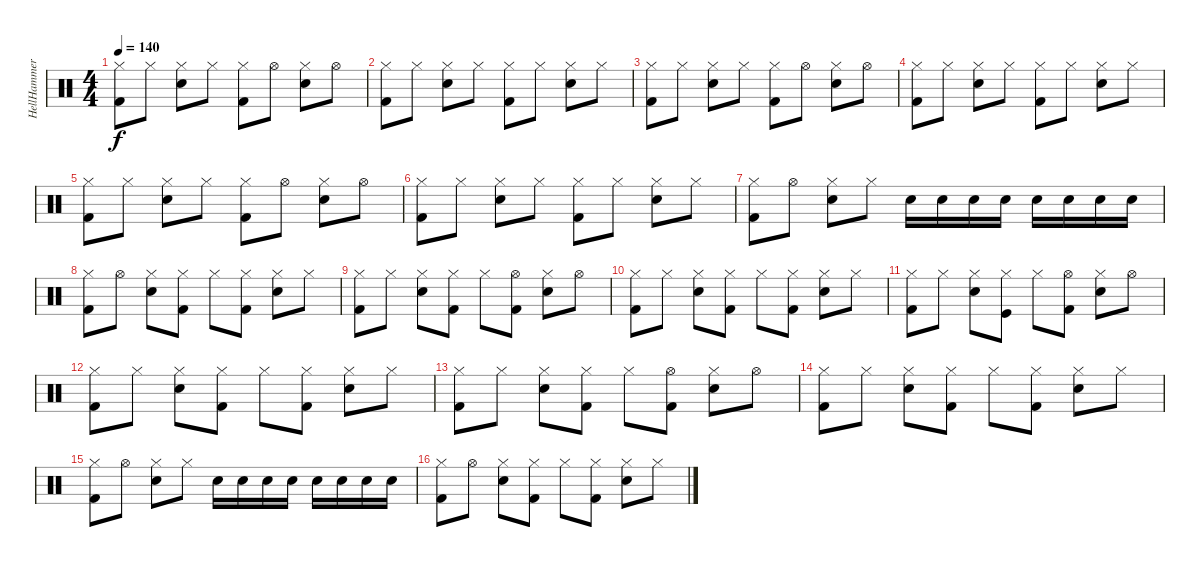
\track ("HellHammer - Drums" "HellHammer") {instrument percussion}
\staff {score}
\articulation defaults
\ts (4 4)
\tempo 140
\clef neutral
\ks c
("Hi-Hat (closed)" "Kick (hit) 2").8{dy f} "Hi-Hat (closed)".8 ("Hi-Hat (closed)" "Snare (hit) 2").8 "Hi-Hat (closed)".8 ("Hi-Hat (closed)" "Kick (hit) 2").8 "Hi-Hat (open)".8 ("Hi-Hat (closed)" "Snare (hit) 2").8 "Hi-Hat (open)".8 |
("Hi-Hat (closed)" "Kick (hit) 2").8 "Hi-Hat (closed)".8 ("Hi-Hat (closed)" "Snare (hit) 2").8 "Hi-Hat (closed)".8 ("Hi-Hat (closed)" "Kick (hit) 2").8 "Hi-Hat (closed)".8 ("Hi-Hat (closed)" "Snare (hit) 2").8 "Hi-Hat (closed)".8 |
("Hi-Hat (closed)" "Kick (hit) 2").8 "Hi-Hat (closed)".8 ("Hi-Hat (closed)" "Snare (hit) 2").8 "Hi-Hat (closed)".8 ("Hi-Hat (closed)" "Kick (hit) 2").8 "Hi-Hat (open)".8 ("Hi-Hat (closed)" "Snare (hit) 2").8 "Hi-Hat (open)".8 |
("Hi-Hat (closed)" "Kick (hit) 2").8 "Hi-Hat (closed)".8 ("Hi-Hat (closed)" "Snare (hit) 2").8 "Hi-Hat (closed)".8 ("Hi-Hat (closed)" "Kick (hit) 2").8 "Hi-Hat (closed)".8 ("Hi-Hat (closed)" "Snare (hit) 2").8 "Hi-Hat (closed)".8 |
("Hi-Hat (closed)" "Kick (hit) 2").8 "Hi-Hat (closed)".8 ("Hi-Hat (closed)" "Snare (hit) 2").8 "Hi-Hat (closed)".8 ("Hi-Hat (closed)" "Kick (hit) 2").8 "Hi-Hat (open)".8 ("Hi-Hat (closed)" "Snare (hit) 2").8 "Hi-Hat (open)".8 |
("Hi-Hat (closed)" "Kick (hit) 2").8 "Hi-Hat (closed)".8 ("Hi-Hat (closed)" "Snare (hit) 2").8 "Hi-Hat (closed)".8 ("Hi-Hat (closed)" "Kick (hit) 2").8 "Hi-Hat (closed)".8 ("Hi-Hat (closed)" "Snare (hit) 2").8 "Hi-Hat (closed)".8 |
("Hi-Hat (closed)" "Kick (hit) 2").8 "Hi-Hat (open)".8 ("Hi-Hat (closed)" "Snare (hit) 2").8 "Hi-Hat (closed)".8 "Snare (hit) 2".16 "Snare (hit) 2".16 "Snare (hit) 2".16 "Snare (hit) 2".16 "Snare (hit) 2".16 "Snare (hit) 2".16 "Snare (hit) 2".16 "Snare (hit) 2".16 |
("Hi-Hat (closed)" "Kick (hit) 2").8 "Hi-Hat (open)".8 ("Hi-Hat (closed)" "Snare (hit) 2").8 ("Hi-Hat (closed)" "Kick (hit) 2").8 "Hi-Hat (closed)".8 ("Hi-Hat (closed)" "Kick (hit) 2").8 ("Hi-Hat (closed)" "Snare (hit) 2").8 "Hi-Hat (closed)".8 |
("Hi-Hat (closed)" "Kick (hit) 2").8 "Hi-Hat (closed)".8 ("Hi-Hat (closed)" "Snare (hit) 2").8 ("Hi-Hat (closed)" "Kick (hit) 2").8 "Hi-Hat (closed)".8 ("Hi-Hat (open)" "Kick (hit) 2").8 ("Hi-Hat (closed)" "Snare (hit) 2").8 "Hi-Hat (open)".8 |
("Hi-Hat (closed)" "Kick (hit) 2").8 "Hi-Hat (closed)".8 ("Hi-Hat (closed)" "Snare (hit) 2").8 ("Hi-Hat (closed)" "Kick (hit) 2").8 "Hi-Hat (closed)".8 ("Hi-Hat (closed)" "Kick (hit) 2").8 ("Hi-Hat (closed)" "Snare (hit) 2").8 "Hi-Hat (closed)".8 |
("Hi-Hat (closed)" "Kick (hit) 2").8 "Hi-Hat (closed)".8 ("Hi-Hat (closed)" "Snare (hit) 2").8 ("Hi-Hat (closed)" "Kick (hit)").8 "Hi-Hat (closed)".8 ("Hi-Hat (open)" "Kick (hit) 2").8 ("Hi-Hat (closed)" "Snare (hit) 2").8 "Hi-Hat (open)".8 |
("Hi-Hat (closed)" "Kick (hit) 2").8 "Hi-Hat (closed)".8 ("Hi-Hat (closed)" "Snare (hit) 2").8 ("Hi-Hat (closed)" "Kick (hit) 2").8 "Hi-Hat (closed)".8 ("Hi-Hat (closed)" "Kick (hit) 2").8 ("Hi-Hat (closed)" "Snare (hit) 2").8 "Hi-Hat (closed)".8 |
("Hi-Hat (closed)" "Kick (hit) 2").8 "Hi-Hat (closed)".8 ("Hi-Hat (closed)" "Snare (hit) 2").8 ("Hi-Hat (closed)" "Kick (hit) 2").8 "Hi-Hat (closed)".8 ("Hi-Hat (open)" "Kick (hit) 2").8 ("Hi-Hat (closed)" "Snare (hit) 2").8 "Hi-Hat (open)".8 |
("Hi-Hat (closed)" "Kick (hit) 2").8 "Hi-Hat (closed)".8 ("Hi-Hat (closed)" "Snare (hit) 2").8 ("Hi-Hat (closed)" "Kick (hit) 2").8 "Hi-Hat (closed)".8 ("Hi-Hat (closed)" "Kick (hit) 2").8 ("Hi-Hat (closed)" "Snare (hit) 2").8 "Hi-Hat (closed)".8 |
("Hi-Hat (closed)" "Kick (hit) 2").8 "Hi-Hat (open)".8 ("Hi-Hat (closed)" "Snare (hit) 2").8 "Hi-Hat (closed)".8 "Snare (hit) 2".16 "Snare (hit) 2".16 "Snare (hit) 2".16 "Snare (hit) 2".16 "Snare (hit) 2".16 "Snare (hit) 2".16 "Snare (hit) 2".16 "Snare (hit) 2".16 |
("Hi-Hat (closed)" "Kick (hit) 2").8 "Hi-Hat (open)".8 ("Hi-Hat (closed)" "Snare (hit) 2").8 ("Hi-Hat (closed)" "Kick (hit) 2").8 "Hi-Hat (closed)".8 ("Hi-Hat (closed)" "Kick (hit) 2").8 ("Hi-Hat (closed)" "Snare (hit) 2").8 "Hi-Hat (closed)".8
